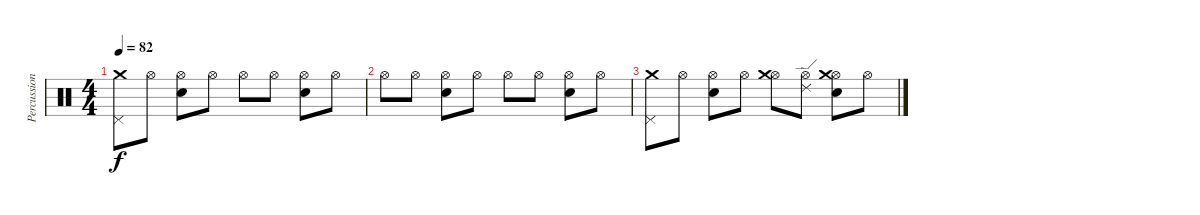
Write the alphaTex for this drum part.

\track ("Percussion" "Percussion") {instrument percussion}
\staff {score}
\articulation defaults
\ts (4 4)
\tempo 82
\clef neutral
\ks c
("Pedal Hi-Hat (hit)" "Crash medium (hit)").8{dy f} "Hi-Hat (open)".8 ("Hi-Hat (open)" "Snare (hit) 2").8 "Hi-Hat (open)".8 "Hi-Hat (open)".8 "Hi-Hat (open)".8 ("Hi-Hat (open)" "Snare (hit) 2").8 "Hi-Hat (open)".8 |
"Hi-Hat (open)".8 "Hi-Hat (open)".8 ("Hi-Hat (open)" "Snare (hit) 2").8 "Hi-Hat (open)".8 "Hi-Hat (open)".8 "Hi-Hat (open)".8 ("Hi-Hat (open)" "Snare (hit) 2").8 "Hi-Hat (open)".8 |
("Pedal Hi-Hat (hit)" "Crash medium (hit)").8 "Hi-Hat (open)".8 ("Hi-Hat (open)" "Snare (hit) 2").8 "Hi-Hat (open)".8 ("Hi-Hat (open)" "Crash medium (hit)").8 ("Hi-Hat (open)" "Ride (edge) 2").8 ("Hi-Hat (open)" "Snare (hit) 2" "Crash medium (hit)").8 "Hi-Hat (open)".8
